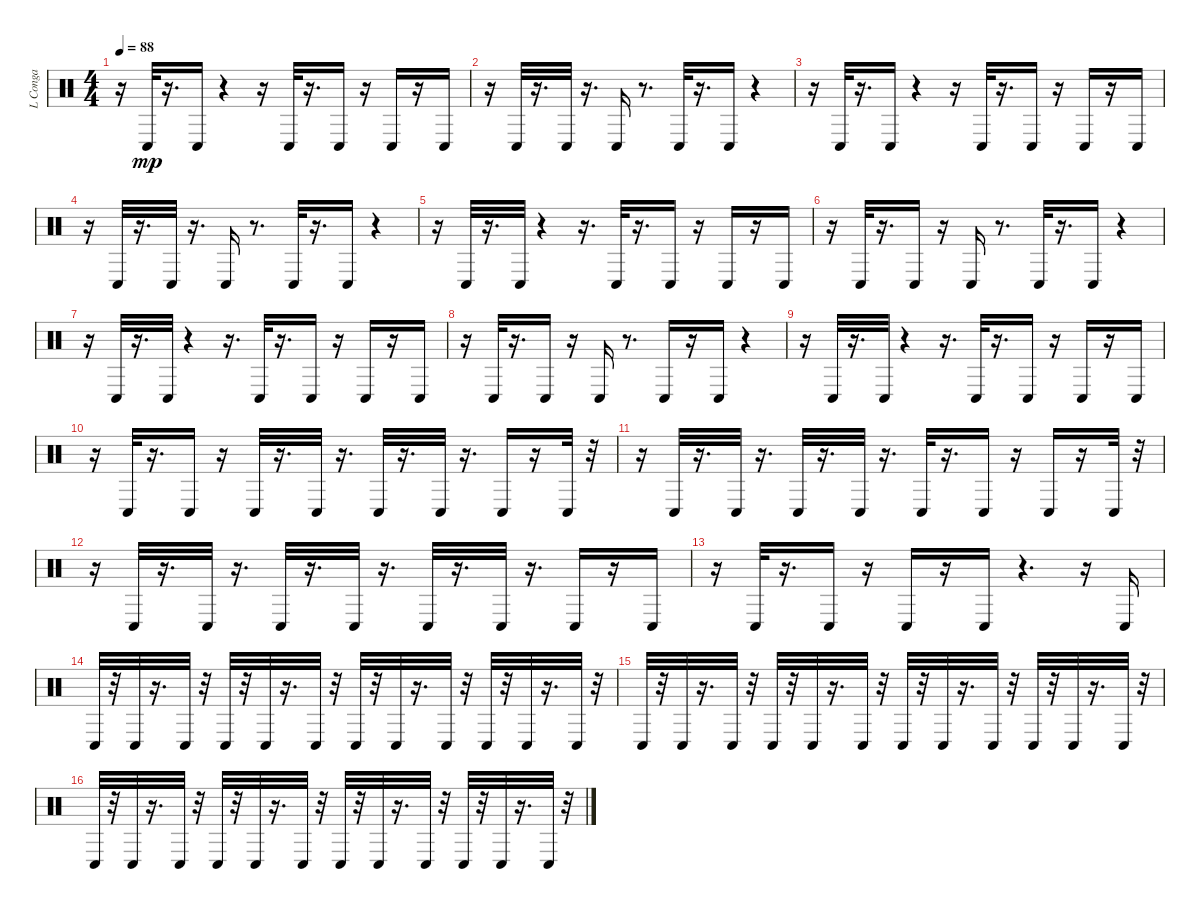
\track ("L Conga" "L Conga") {instrument percussion}
\staff {score}
\articulation defaults
\ts (4 4)
\tempo 88
\clef neutral
\ks c
r.16{dy mp} "Conga low (hit)".32 r.16{d} "Conga low (hit)".16 r.4 r.16 "Conga low (hit)".32 r.16{d} "Conga low (hit)".16 r.16 "Conga low (hit)".16 r.16 "Conga low (hit)".16 |
r.16 "Conga low (hit)".32 r.16{d} "Conga low (hit)".32 r.16{d} "Conga low (hit)".16 r.8{d} "Conga low (hit)".32 r.16{d} "Conga low (hit)".16 r.4 |
r.16 "Conga low (hit)".32 r.16{d} "Conga low (hit)".16 r.4 r.16 "Conga low (hit)".32 r.16{d} "Conga low (hit)".16 r.16 "Conga low (hit)".16 r.16 "Conga low (hit)".16 |
r.16 "Conga low (hit)".32 r.16{d} "Conga low (hit)".32 r.16{d} "Conga low (hit)".16 r.8{d} "Conga low (hit)".32 r.16{d} "Conga low (hit)".16 r.4 |
r.16 "Conga low (hit)".32 r.16{d} "Conga low (hit)".32 r.4 r.16{d} "Conga low (hit)".32 r.16{d} "Conga low (hit)".16 r.16 "Conga low (hit)".16 r.16 "Conga low (hit)".16 |
r.16 "Conga low (hit)".32 r.16{d} "Conga low (hit)".16 r.16 "Conga low (hit)".16 r.8{d} "Conga low (hit)".32 r.16{d} "Conga low (hit)".16 r.4 |
r.16 "Conga low (hit)".32 r.16{d} "Conga low (hit)".32 r.4 r.16{d} "Conga low (hit)".32 r.16{d} "Conga low (hit)".16 r.16 "Conga low (hit)".16 r.16 "Conga low (hit)".16 |
r.16 "Conga low (hit)".32 r.16{d} "Conga low (hit)".16 r.16 "Conga low (hit)".16 r.8{d} "Conga low (hit)".16 r.16 "Conga low (hit)".16 r.4 |
r.16 "Conga low (hit)".32 r.16{d} "Conga low (hit)".32 r.4 r.16{d} "Conga low (hit)".32 r.16{d} "Conga low (hit)".16 r.16 "Conga low (hit)".16 r.16 "Conga low (hit)".16 |
r.16 "Conga low (hit)".32 r.16{d} "Conga low (hit)".16 r.16 "Conga low (hit)".32 r.16{d} "Conga low (hit)".32 r.16{d} "Conga low (hit)".32 r.16{d} "Conga low (hit)".32 r.16{d} "Conga low (hit)".16 r.16 "Conga low (hit)".32 r.32 |
r.16 "Conga low (hit)".32 r.16{d} "Conga low (hit)".32 r.16{d} "Conga low (hit)".32 r.16{d} "Conga low (hit)".32 r.16{d} "Conga low (hit)".32 r.16{d} "Conga low (hit)".16 r.16 "Conga low (hit)".16 r.16 "Conga low (hit)".32 r.32 |
r.16 "Conga low (hit)".32 r.16{d} "Conga low (hit)".32 r.16{d} "Conga low (hit)".32 r.16{d} "Conga low (hit)".32 r.16{d} "Conga low (hit)".32 r.16{d} "Conga low (hit)".32 r.16{d} "Conga low (hit)".16 r.16 "Conga low (hit)".16 |
r.16 "Conga low (hit)".32 r.16{d} "Conga low (hit)".16 r.16 "Conga low (hit)".16 r.16 "Conga low (hit)".16 r.4{d} r.16 "Conga low (hit)".16 |
"Conga low (hit)".32 r.32 "Conga low (hit)".32 r.16{d} "Conga low (hit)".32 r.32 "Conga low (hit)".32 r.32 "Conga low (hit)".32 r.16{d} "Conga low (hit)".32 r.32 "Conga low (hit)".32 r.32 "Conga low (hit)".32 r.16{d} "Conga low (hit)".32 r.32 "Conga low (hit)".32 r.32 "Conga low (hit)".32 r.16{d} "Conga low (hit)".32 r.32 |
"Conga low (hit)".32 r.32 "Conga low (hit)".32 r.16{d} "Conga low (hit)".32 r.32 "Conga low (hit)".32 r.32 "Conga low (hit)".32 r.16{d} "Conga low (hit)".32 r.32 "Conga low (hit)".32 r.32 "Conga low (hit)".32 r.16{d} "Conga low (hit)".32 r.32 "Conga low (hit)".32 r.32 "Conga low (hit)".32 r.16{d} "Conga low (hit)".32 r.32 |
"Conga low (hit)".32 r.32 "Conga low (hit)".32 r.16{d} "Conga low (hit)".32 r.32 "Conga low (hit)".32 r.32 "Conga low (hit)".32 r.16{d} "Conga low (hit)".32 r.32 "Conga low (hit)".32 r.32 "Conga low (hit)".32 r.16{d} "Conga low (hit)".32 r.32 "Conga low (hit)".32 r.32 "Conga low (hit)".32 r.16{d} "Conga low (hit)".32 r.32
